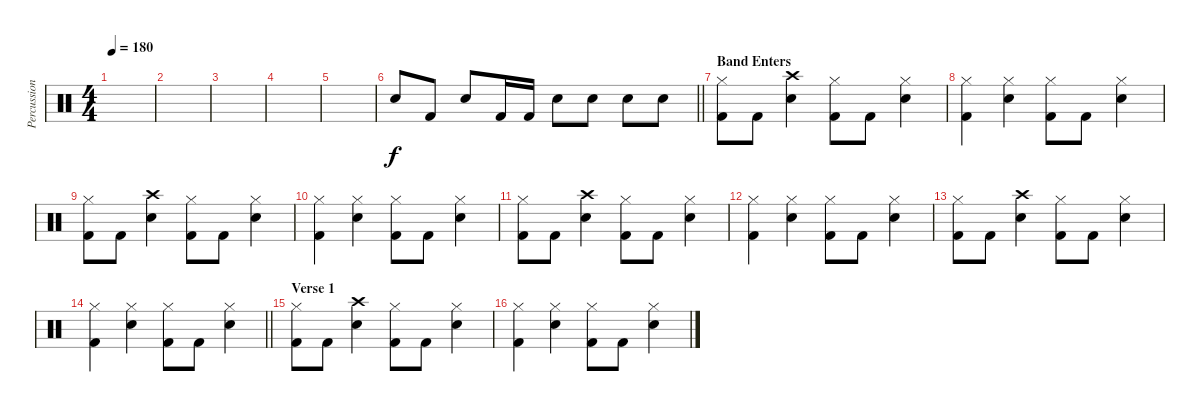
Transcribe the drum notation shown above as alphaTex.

\track ("Percussion" "Percussion") {instrument percussion}
\staff {score}
\articulation defaults
\ts (4 4)
\tempo 180
\clef neutral
\ks c
|
|
|
|
|
\barLineRight lightlight "Snare (hit) 2".8 "Kick (hit) 2".8 "Snare (hit) 2".8 "Kick (hit) 2".16 "Kick (hit) 2".16 "Snare (hit) 2".8 "Snare (hit) 2".8 "Snare (hit) 2".8 "Snare (hit) 2".8
|
\section ("" "Band Enters")
("Hi-Hat (closed)" "Kick (hit) 2").8 "Kick (hit) 2".8 ("Crash high (hit)" "Snare (hit) 2").4 ("Hi-Hat (closed)" "Kick (hit) 2").8 "Kick (hit) 2".8 ("Hi-Hat (closed)" "Snare (hit) 2").4 |
("Hi-Hat (closed)" "Kick (hit) 2").4 ("Hi-Hat (closed)" "Snare (hit) 2").4 ("Hi-Hat (closed)" "Kick (hit) 2").8 "Kick (hit) 2".8 ("Hi-Hat (closed)" "Snare (hit) 2").4 |
("Hi-Hat (closed)" "Kick (hit) 2").8 "Kick (hit) 2".8 ("Crash high (hit)" "Snare (hit) 2").4 ("Hi-Hat (closed)" "Kick (hit) 2").8 "Kick (hit) 2".8 ("Hi-Hat (closed)" "Snare (hit) 2").4 |
("Hi-Hat (closed)" "Kick (hit) 2").4 ("Hi-Hat (closed)" "Snare (hit) 2").4 ("Hi-Hat (closed)" "Kick (hit) 2").8 "Kick (hit) 2".8 ("Hi-Hat (closed)" "Snare (hit) 2").4 |
("Hi-Hat (closed)" "Kick (hit) 2").8 "Kick (hit) 2".8 ("Crash high (hit)" "Snare (hit) 2").4 ("Hi-Hat (closed)" "Kick (hit) 2").8 "Kick (hit) 2".8 ("Hi-Hat (closed)" "Snare (hit) 2").4 |
("Hi-Hat (closed)" "Kick (hit) 2").4 ("Hi-Hat (closed)" "Snare (hit) 2").4 ("Hi-Hat (closed)" "Kick (hit) 2").8 "Kick (hit) 2".8 ("Hi-Hat (closed)" "Snare (hit) 2").4 |
("Hi-Hat (closed)" "Kick (hit) 2").8 "Kick (hit) 2".8 ("Crash high (hit)" "Snare (hit) 2").4 ("Hi-Hat (closed)" "Kick (hit) 2").8 "Kick (hit) 2".8 ("Hi-Hat (closed)" "Snare (hit) 2").4 |
\barLineRight lightlight
("Hi-Hat (closed)" "Kick (hit) 2").4 ("Hi-Hat (closed)" "Snare (hit) 2").4 ("Hi-Hat (closed)" "Kick (hit) 2").8 "Kick (hit) 2".8 ("Hi-Hat (closed)" "Snare (hit) 2").4 |
\section ("" "Verse 1")
("Hi-Hat (closed)" "Kick (hit) 2").8 "Kick (hit) 2".8 ("Crash high (hit)" "Snare (hit) 2").4 ("Hi-Hat (closed)" "Kick (hit) 2").8 "Kick (hit) 2".8 ("Hi-Hat (closed)" "Snare (hit) 2").4 |
("Hi-Hat (closed)" "Kick (hit) 2").4 ("Hi-Hat (closed)" "Snare (hit) 2").4 ("Hi-Hat (closed)" "Kick (hit) 2").8 "Kick (hit) 2".8 ("Hi-Hat (closed)" "Snare (hit) 2").4
